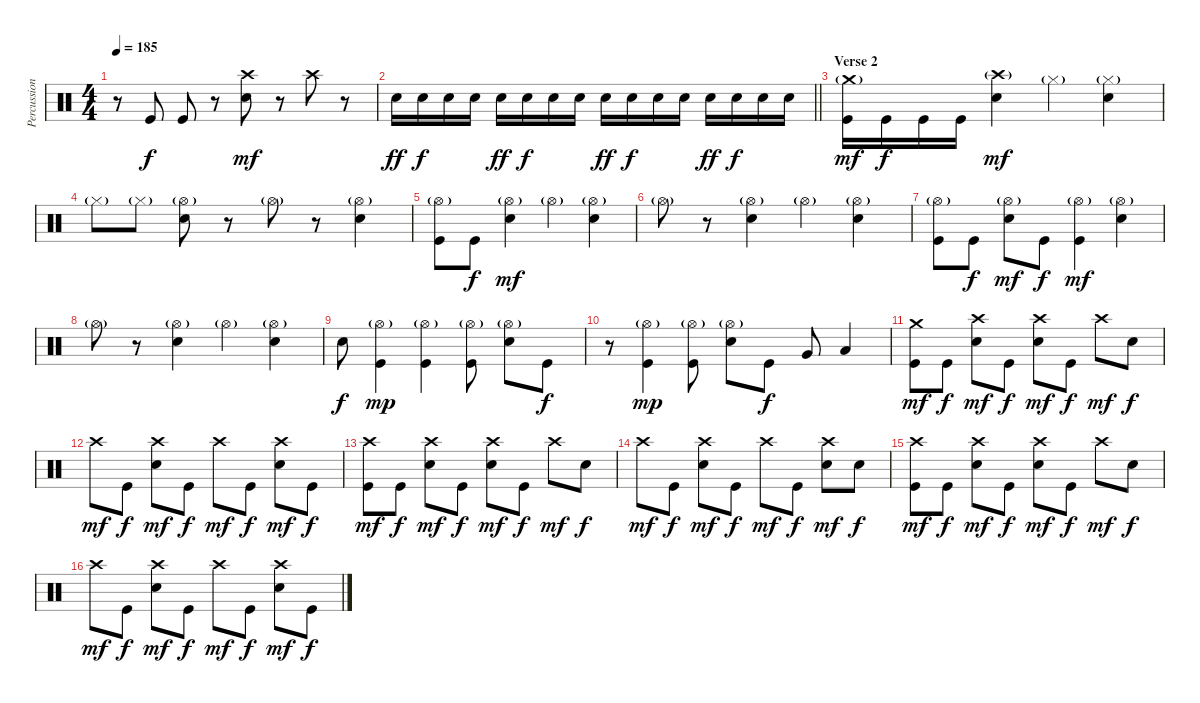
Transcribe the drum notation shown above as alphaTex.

\track ("Percussion" "Percussion") {instrument percussion}
\staff {score}
\articulation defaults
\ts (4 4)
\tempo 185
\clef neutral
\ks c
r.8{dy mf} "Kick (hit)".8{dy f} "Kick (hit)".8 r.8 ("Crash high (hit)" "Electric Snare (hit)").8{dy mf} r.8 "Crash high (hit)".8 r.8 |
\barLineRight lightlight "Snare (hit) 2".16{dy ff} "Snare (hit) 2".16{dy f} "Snare (hit) 2".16 "Snare (hit) 2".16 "Snare (hit) 2".16{dy ff} "Snare (hit) 2".16{dy f} "Snare (hit) 2".16 "Snare (hit) 2".16 "Snare (hit) 2".16{dy ff} "Snare (hit) 2".16{dy f} "Snare (hit) 2".16 "Snare (hit) 2".16 "Snare (hit) 2".16{dy ff} "Snare (hit) 2".16{dy f} "Snare (hit) 2".16 "Snare (hit) 2".16
|
\section ("" "Verse 2")
("Crash medium (hit)"{g} "Kick (hit)").16{dy mf} "Kick (hit)".16{dy f} "Kick (hit)".16 "Kick (hit)".16 ("Crash high (hit)"{g} "Electric Snare (hit)").4{dy mf} "Hi-Hat (closed)"{g}.4 ("Hi-Hat (closed)"{g} "Electric Snare (hit)").4 |
"Hi-Hat (closed)"{g}.8 "Hi-Hat (closed)"{g}.8 ("Hi-Hat (open)"{g} "Electric Snare (hit)").8 r.8 "Hi-Hat (open)"{g}.8 r.8 ("Hi-Hat (open)"{g} "Electric Snare (hit)").4 |
("Hi-Hat (open)"{g} "Kick (hit)").8 "Kick (hit)".8{dy f} ("Hi-Hat (open)"{g} "Electric Snare (hit)").4{dy mf} "Hi-Hat (open)"{g}.4 ("Hi-Hat (open)"{g} "Electric Snare (hit)").4 |
"Hi-Hat (open)"{g}.8 r.8 ("Hi-Hat (open)"{g} "Electric Snare (hit)").4 "Hi-Hat (open)"{g}.4 ("Hi-Hat (open)"{g} "Electric Snare (hit)").4 |
("Hi-Hat (open)"{g} "Kick (hit)").8 "Kick (hit)".8{dy f} ("Hi-Hat (open)"{g} "Electric Snare (hit)").8{dy mf} "Kick (hit)".8{dy f} ("Hi-Hat (open)"{g} "Kick (hit)").4{dy mf} ("Hi-Hat (open)"{g} "Electric Snare (hit)").4 |
"Hi-Hat (open)"{g}.8 r.8 ("Hi-Hat (open)"{g} "Electric Snare (hit)").4 "Hi-Hat (open)"{g}.4 ("Hi-Hat (open)"{g} "Electric Snare (hit)").4 |
"Electric Snare (hit)".8{dy f} ("Hi-Hat (open)"{g} "Kick (hit)").4{dy mp} ("Hi-Hat (open)"{g} "Kick (hit)").4 ("Hi-Hat (open)"{g} "Kick (hit)").8 ("Hi-Hat (open)"{g} "Electric Snare (hit)").8 "Kick (hit)".8{dy f} |
r.8 ("Hi-Hat (open)"{g} "Kick (hit)").4{dy mp} ("Hi-Hat (open)"{g} "Kick (hit)").8 ("Hi-Hat (open)"{g} "Electric Snare (hit)").8 "Kick (hit)".8{dy f} "Very Low Tom (hit)".8 "Low Floor Tom (hit)".4 |
("Crash medium (hit)" "Kick (hit)").8{dy mf} "Kick (hit)".8{dy f} ("Crash high (hit)" "Electric Snare (hit)").8{dy mf} "Kick (hit)".8{dy f} ("Crash high (hit)" "Electric Snare (hit)").8{dy mf} "Kick (hit)".8{dy f} "Crash high (hit)".8{dy mf} "Electric Snare (hit)".8{dy f} |
"Crash high (hit)".8{dy mf} "Kick (hit)".8{dy f} ("Crash high (hit)" "Electric Snare (hit)").8{dy mf} "Kick (hit)".8{dy f} "Crash high (hit)".8{dy mf} "Kick (hit)".8{dy f} ("Crash high (hit)" "Electric Snare (hit)").8{dy mf} "Kick (hit)".8{dy f} |
("Crash high (hit)" "Kick (hit)").8{dy mf} "Kick (hit)".8{dy f} ("Crash high (hit)" "Electric Snare (hit)").8{dy mf} "Kick (hit)".8{dy f} ("Crash high (hit)" "Electric Snare (hit)").8{dy mf} "Kick (hit)".8{dy f} "Crash high (hit)".8{dy mf} "Electric Snare (hit)".8{dy f} |
"Crash high (hit)".8{dy mf} "Kick (hit)".8{dy f} ("Crash high (hit)" "Electric Snare (hit)").8{dy mf} "Kick (hit)".8{dy f} "Crash high (hit)".8{dy mf} "Kick (hit)".8{dy f} ("Crash high (hit)" "Electric Snare (hit)").8{dy mf} "Electric Snare (hit)".8{dy f} |
("Crash high (hit)" "Kick (hit)").8{dy mf} "Kick (hit)".8{dy f} ("Crash high (hit)" "Electric Snare (hit)").8{dy mf} "Kick (hit)".8{dy f} ("Crash high (hit)" "Electric Snare (hit)").8{dy mf} "Kick (hit)".8{dy f} "Crash high (hit)".8{dy mf} "Electric Snare (hit)".8{dy f} |
"Crash high (hit)".8{dy mf} "Kick (hit)".8{dy f} ("Crash high (hit)" "Electric Snare (hit)").8{dy mf} "Kick (hit)".8{dy f} "Crash high (hit)".8{dy mf} "Kick (hit)".8{dy f} ("Crash high (hit)" "Electric Snare (hit)").8{dy mf} "Kick (hit)".8{dy f}
